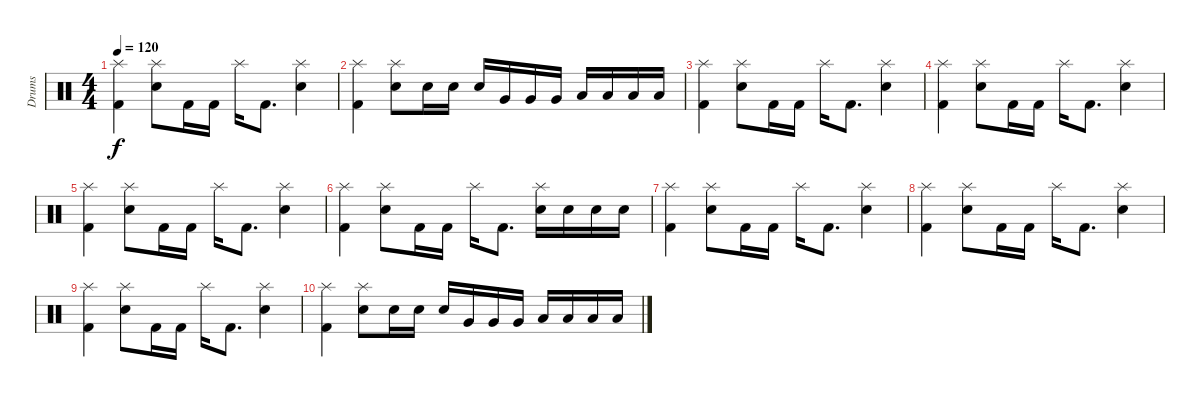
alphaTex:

\track ("Drums" "Drums") {instrument percussion}
\staff {score}
\articulation defaults
\ts (4 4)
\tempo 120
\clef neutral
\ks c
("Splash (hit)" "Kick (hit) 2").4{dy f} ("Splash (hit)" "Electric Snare (hit)").8 "Kick (hit) 2".16 "Kick (hit) 2".16 "Splash (hit)".16 "Kick (hit) 2".8{d} ("Splash (hit)" "Electric Snare (hit)").4 |
("Splash (hit)" "Kick (hit) 2").4 ("Splash (hit)" "Electric Snare (hit)").8 "Electric Snare (hit)".16 "Electric Snare (hit)".16 "Electric Snare (hit)".16 "Very Low Tom (hit)".16 "Very Low Tom (hit)".16 "Very Low Tom (hit)".16 "Low Tom (hit)".16 "Low Tom (hit)".16 "Low Tom (hit)".16 "Low Tom (hit)".16 |
("Splash (hit)" "Kick (hit) 2").4 ("Splash (hit)" "Electric Snare (hit)").8 "Kick (hit) 2".16 "Kick (hit) 2".16 "Splash (hit)".16 "Kick (hit) 2".8{d} ("Splash (hit)" "Electric Snare (hit)").4 |
("Splash (hit)" "Kick (hit) 2").4 ("Splash (hit)" "Electric Snare (hit)").8 "Kick (hit) 2".16 "Kick (hit) 2".16 "Splash (hit)".16 "Kick (hit) 2".8{d} ("Splash (hit)" "Electric Snare (hit)").4 |
("Splash (hit)" "Kick (hit) 2").4 ("Splash (hit)" "Electric Snare (hit)").8 "Kick (hit) 2".16 "Kick (hit) 2".16 "Splash (hit)".16 "Kick (hit) 2".8{d} ("Splash (hit)" "Electric Snare (hit)").4 |
("Splash (hit)" "Kick (hit) 2").4 ("Splash (hit)" "Electric Snare (hit)").8 "Kick (hit) 2".16 "Kick (hit) 2".16 "Splash (hit)".16 "Kick (hit) 2".8{d} ("Splash (hit)" "Electric Snare (hit)").16 "Electric Snare (hit)".16 "Electric Snare (hit)".16 "Electric Snare (hit)".16 |
("Splash (hit)" "Kick (hit) 2").4 ("Splash (hit)" "Electric Snare (hit)").8 "Kick (hit) 2".16 "Kick (hit) 2".16 "Splash (hit)".16 "Kick (hit) 2".8{d} ("Splash (hit)" "Electric Snare (hit)").4 |
("Splash (hit)" "Kick (hit) 2").4 ("Splash (hit)" "Electric Snare (hit)").8 "Kick (hit) 2".16 "Kick (hit) 2".16 "Splash (hit)".16 "Kick (hit) 2".8{d} ("Splash (hit)" "Electric Snare (hit)").4 |
("Splash (hit)" "Kick (hit) 2").4 ("Splash (hit)" "Electric Snare (hit)").8 "Kick (hit) 2".16 "Kick (hit) 2".16 "Splash (hit)".16 "Kick (hit) 2".8{d} ("Splash (hit)" "Electric Snare (hit)").4 |
("Splash (hit)" "Kick (hit) 2").4 ("Splash (hit)" "Electric Snare (hit)").8 "Electric Snare (hit)".16 "Electric Snare (hit)".16 "Electric Snare (hit)".16 "Very Low Tom (hit)".16 "Very Low Tom (hit)".16 "Very Low Tom (hit)".16 "Low Tom (hit)".16 "Low Tom (hit)".16 "Low Tom (hit)".16 "Low Tom (hit)".16
